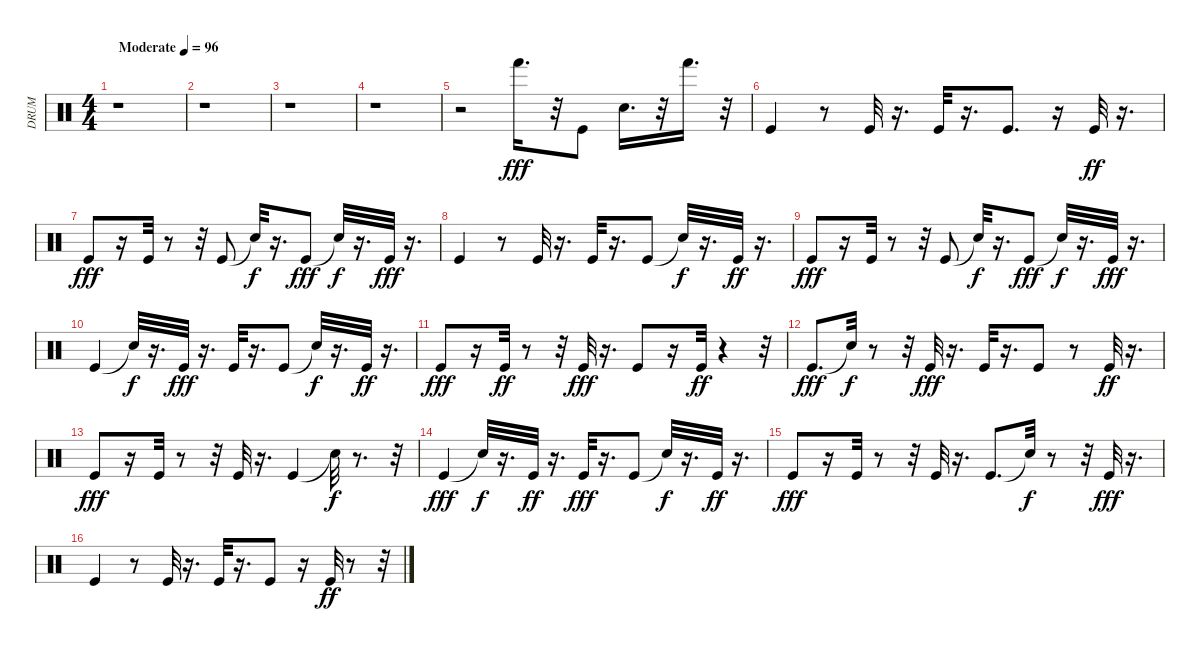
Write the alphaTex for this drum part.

\track ("DRUM" "DRUM") {instrument percussion}
\staff {score}
\articulation defaults
\ts (4 4)
\tempo (96 "Moderate")
\clef neutral
\ks c
r.1{dy fff} |
r.1 |
r.1 |
r.1 |
r.2 "Hand (hit)".16{d} r.32 "Kick (hit)".8 "Snare (hit) 2".16{d} r.32 "Hand (hit)".16{d} r.32 |
"Kick (hit)".4 r.8 "Kick (hit)".32 r.16{d} "Kick (hit)".32 r.16{d} "Kick (hit)".8{d} r.16 "Kick (hit)".32{dy ff} r.16{d} |
"Kick (hit)".8{dy fff} r.16 "Kick (hit)".32 r.8 r.32 "Kick (hit)".8 "Snare (hit)"{t}.32{dy f} r.16{d} "Kick (hit)".8{dy fff} "Snare (hit)"{t}.32{dy f} r.16{d} "Kick (hit)".32{dy fff} r.16{d} |
"Kick (hit)".4 r.8 "Kick (hit)".32 r.16{d} "Kick (hit)".32 r.16{d} "Kick (hit)".8 "Snare (hit)"{t}.32{dy f} r.16{d} "Kick (hit)".32{dy ff} r.16{d} |
"Kick (hit)".8{dy fff} r.16 "Kick (hit)".32 r.8 r.32 "Kick (hit)".8 "Snare (hit)"{t}.32{dy f} r.16{d} "Kick (hit)".8{dy fff} "Snare (hit)"{t}.32{dy f} r.16{d} "Kick (hit)".32{dy fff} r.16{d} |
"Kick (hit)".4 "Snare (hit)"{t}.32{dy f} r.16{d} "Kick (hit)".32{dy fff} r.16{d} "Kick (hit)".32 r.16{d} "Kick (hit)".8 "Snare (hit)"{t}.32{dy f} r.16{d} "Kick (hit)".32{dy ff} r.16{d} |
"Kick (hit)".8{dy fff} r.16 "Kick (hit)".32{dy ff} r.8 r.32 "Kick (hit)".32{dy fff} r.16{d} "Kick (hit)".8 r.16 "Kick (hit)".32{dy ff} r.4 r.32 |
"Kick (hit)".8{d dy fff} "Snare (hit)"{t}.32{dy f} r.8 r.32 "Kick (hit)".32{dy fff} r.16{d} "Kick (hit)".32 r.16{d} "Kick (hit)".8 r.8 "Kick (hit)".32{dy ff} r.16{d} |
"Kick (hit)".8{dy fff} r.16 "Kick (hit)".32 r.8 r.32 "Kick (hit)".32 r.16{d} "Kick (hit)".4 "Snare (hit)"{t}.32{dy f} r.8{d} r.32 |
"Kick (hit)".4{dy fff} "Snare (hit)"{t}.32{dy f} r.16{d} "Kick (hit)".32{dy ff} r.16{d} "Kick (hit)".32{dy fff} r.16{d} "Kick (hit)".8 "Snare (hit)"{t}.32{dy f} r.16{d} "Kick (hit)".32{dy ff} r.16{d} |
"Kick (hit)".8{dy fff} r.16 "Kick (hit)".32 r.8 r.32 "Kick (hit)".32 r.16{d} "Kick (hit)".8{d} "Snare (hit)"{t}.32{dy f} r.8 r.32 "Kick (hit)".32{dy fff} r.16{d} |
"Kick (hit)".4 r.8 "Kick (hit)".32 r.16{d} "Kick (hit)".32 r.16{d} "Kick (hit)".8 r.16 "Kick (hit)".32{dy ff} r.8 r.32
